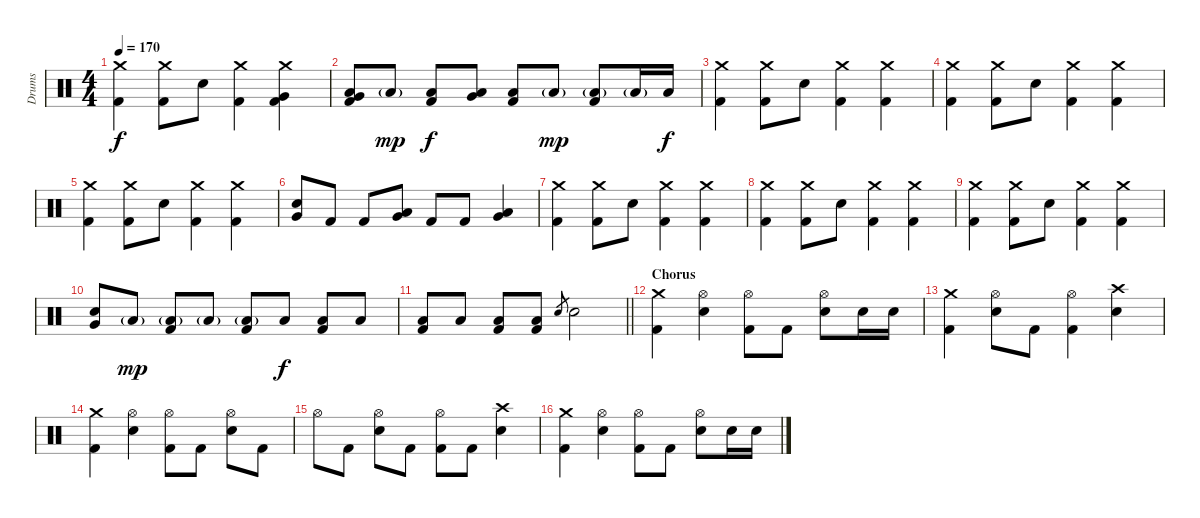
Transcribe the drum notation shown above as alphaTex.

\track ("Drums" "Drums") {instrument percussion}
\staff {score}
\articulation defaults
\ts (4 4)
\tempo 170
\clef neutral
\ks c
("Crash medium (hit)" "Kick (hit) 2").4{dy f} ("Crash medium (hit)" "Kick (hit) 2").8 "Electric Snare (hit)".8 ("Crash medium (hit)" "Kick (hit) 2").4 ("Crash medium (hit)" "Very Low Tom (hit)" "Kick (hit) 2").4 |
("Low Tom (hit)" "Very Low Tom (hit)" "Kick (hit) 2").8 "Low Floor Tom (hit)"{g}.8{dy mp} ("Low Floor Tom (hit)" "Kick (hit) 2").8{dy f} ("Low Floor Tom (hit)" "Very Low Tom (hit)").8 ("Low Floor Tom (hit)" "Kick (hit) 2").8 "Low Floor Tom (hit)"{g}.8{dy mp} ("Low Floor Tom (hit)"{g} "Kick (hit) 2").8 "Low Floor Tom (hit)"{g}.16 "Low Floor Tom (hit)".16{dy f} |
("Crash medium (hit)" "Kick (hit) 2").4 ("Crash medium (hit)" "Kick (hit) 2").8 "Electric Snare (hit)".8 ("Crash medium (hit)" "Kick (hit) 2").4 ("Crash medium (hit)" "Kick (hit) 2").4 |
("Crash medium (hit)" "Kick (hit) 2").4 ("Crash medium (hit)" "Kick (hit) 2").8 "Electric Snare (hit)".8 ("Crash medium (hit)" "Kick (hit) 2").4 ("Crash medium (hit)" "Kick (hit) 2").4 |
("Crash medium (hit)" "Kick (hit) 2").4 ("Crash medium (hit)" "Kick (hit) 2").8 "Electric Snare (hit)".8 ("Crash medium (hit)" "Kick (hit) 2").4 ("Crash medium (hit)" "Kick (hit) 2").4 |
("Very Low Tom (hit)" "Electric Snare (hit)").8 "Kick (hit) 2".8 "Kick (hit) 2".8 ("Very Low Tom (hit)" "Low Tom (hit)").8 "Kick (hit) 2".8 "Kick (hit) 2".8 ("Very Low Tom (hit)" "Low Floor Tom (hit)").4 |
("Crash medium (hit)" "Kick (hit) 2").4 ("Crash medium (hit)" "Kick (hit) 2").8 "Electric Snare (hit)".8 ("Crash medium (hit)" "Kick (hit) 2").4 ("Crash medium (hit)" "Kick (hit) 2").4 |
("Crash medium (hit)" "Kick (hit) 2").4 ("Crash medium (hit)" "Kick (hit) 2").8 "Electric Snare (hit)".8 ("Crash medium (hit)" "Kick (hit) 2").4 ("Crash medium (hit)" "Kick (hit) 2").4 |
("Crash medium (hit)" "Kick (hit) 2").4 ("Crash medium (hit)" "Kick (hit) 2").8 "Electric Snare (hit)".8 ("Crash medium (hit)" "Kick (hit) 2").4 ("Crash medium (hit)" "Kick (hit) 2").4 |
("Very Low Tom (hit)" "Electric Snare (hit)").8 "Low Floor Tom (hit)"{g}.8{dy mp} ("Low Floor Tom (hit)"{g} "Kick (hit) 2").8 "Low Floor Tom (hit)"{g}.8 ("Low Floor Tom (hit)"{g} "Kick (hit) 2").8 "Low Floor Tom (hit)".8{dy f} ("Low Floor Tom (hit)" "Kick (hit) 2").8 "Low Floor Tom (hit)".8 |
\barLineRight lightlight
("Low Floor Tom (hit)" "Kick (hit) 2").8 "Low Floor Tom (hit)".8 ("Low Floor Tom (hit)" "Kick (hit) 2").8 ("Low Floor Tom (hit)" "Kick (hit) 2").8 "Electric Snare (hit)".8{gr} "Electric Snare (hit)".2 |
\section ("" "Chorus")
("Crash medium (hit)" "Kick (hit) 2").4 ("Hi-Hat (open)" "Electric Snare (hit)").4 ("Hi-Hat (open)" "Kick (hit) 2").8 "Kick (hit) 2".8 ("Hi-Hat (open)" "Electric Snare (hit)").8 "Electric Snare (hit)".16 "Electric Snare (hit)".16 |
("Crash medium (hit)" "Kick (hit) 2").4 ("Hi-Hat (open)" "Electric Snare (hit)").8 "Kick (hit) 2".8 ("Hi-Hat (open)" "Kick (hit) 2").4 ("Crash high (hit)" "Electric Snare (hit)").4 |
("Crash medium (hit)" "Kick (hit) 2").4 ("Hi-Hat (open)" "Electric Snare (hit)").4 ("Hi-Hat (open)" "Kick (hit) 2").8 "Kick (hit) 2".8 ("Hi-Hat (open)" "Electric Snare (hit)").8 "Kick (hit) 2".8 |
"Hi-Hat (open)".8 "Kick (hit) 2".8 ("Hi-Hat (open)" "Electric Snare (hit)").8 "Kick (hit) 2".8 ("Hi-Hat (open)" "Kick (hit) 2").8 "Kick (hit) 2".8 ("Crash high (hit)" "Electric Snare (hit)").4 |
("Crash medium (hit)" "Kick (hit) 2").4 ("Hi-Hat (open)" "Electric Snare (hit)").4 ("Hi-Hat (open)" "Kick (hit) 2").8 "Kick (hit) 2".8 ("Hi-Hat (open)" "Electric Snare (hit)").8 "Electric Snare (hit)".16 "Electric Snare (hit)".16
